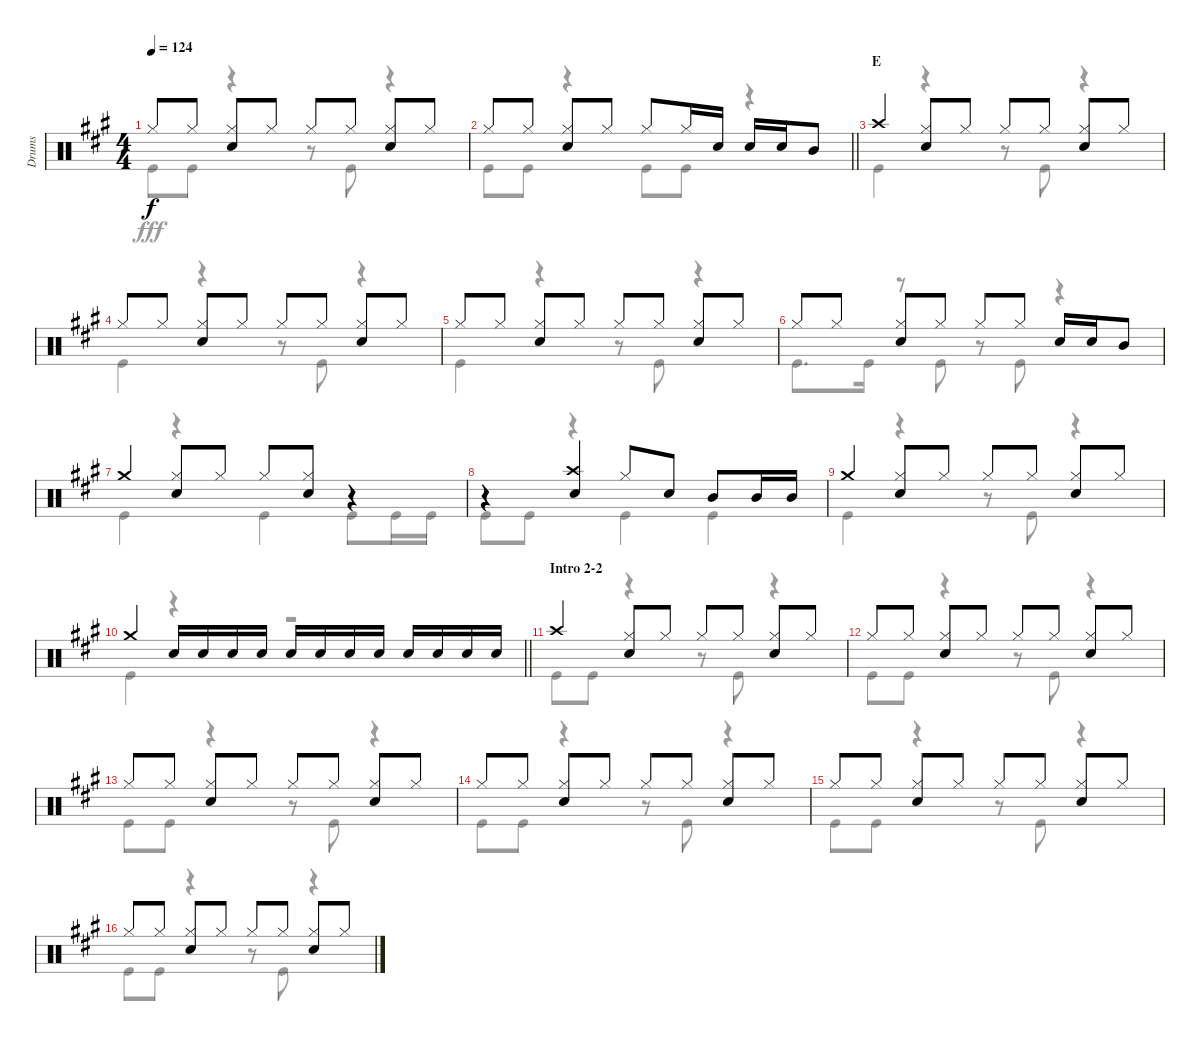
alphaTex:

\track ("Drums" "Drums") {instrument percussion}
\staff {score}
\articulation defaults
\voice
\ts (4 4)
\tempo 124
\clef neutral
\ks a "Hi-Hat (closed)".8{dy f} "Hi-Hat (closed)".8
("Hi-Hat (closed)" "Snare (hit) 2").8 "Hi-Hat (closed)".8 "Hi-Hat (closed)".8 "Hi-Hat (closed)".8 ("Hi-Hat (closed)" "Snare (hit) 2").8 "Hi-Hat (closed)".8 |
\barLineRight lightlight "Hi-Hat (closed)".8 "Hi-Hat (closed)".8
("Hi-Hat (closed)" "Snare (hit) 2").8 "Hi-Hat (closed)".8 "Hi-Hat (closed)".8 "Hi-Hat (closed)".16 "Snare (hit) 2".16 "Snare (hit) 2".16 "Snare (hit) 2".16 "Mid Tom (hit)".8 |
\section ("" "E")
"Crash high (hit)".4 ("Hi-Hat (closed)" "Snare (hit) 2").8 "Hi-Hat (closed)".8 "Hi-Hat (closed)".8 "Hi-Hat (closed)".8 ("Hi-Hat (closed)" "Snare (hit) 2").8 "Hi-Hat (closed)".8 |
"Hi-Hat (closed)".8 "Hi-Hat (closed)".8 ("Hi-Hat (closed)" "Snare (hit) 2").8 "Hi-Hat (closed)".8 "Hi-Hat (closed)".8 "Hi-Hat (closed)".8 ("Hi-Hat (closed)" "Snare (hit) 2").8 "Hi-Hat (closed)".8 |
"Hi-Hat (closed)".8 "Hi-Hat (closed)".8 ("Hi-Hat (closed)" "Snare (hit) 2").8 "Hi-Hat (closed)".8 "Hi-Hat (closed)".8 "Hi-Hat (closed)".8 ("Hi-Hat (closed)" "Snare (hit) 2").8 "Hi-Hat (closed)".8 |
"Hi-Hat (closed)".8 "Hi-Hat (closed)".8 ("Hi-Hat (closed)" "Snare (hit) 2").8 "Hi-Hat (closed)".8 "Hi-Hat (closed)".8 "Hi-Hat (closed)".8 "Snare (hit) 2".16 "Snare (hit) 2".16 "Mid Tom (hit)".8 |
"Crash medium (hit)".4 ("Hi-Hat (closed)" "Snare (hit) 2").8 "Hi-Hat (closed)".8 "Hi-Hat (closed)".8 ("Hi-Hat (closed)" "Snare (hit) 2").8 r.4 |
r.4 ("Crash high (hit)" "Snare (hit) 2").4 "Hi-Hat (closed)".8 "Snare (hit) 2".8 "Mid Tom (hit)".8 "Mid Tom (hit)".16 "Mid Tom (hit)".16 |
"Crash medium (hit)".4 ("Hi-Hat (closed)" "Snare (hit) 2").8 "Hi-Hat (closed)".8 "Hi-Hat (closed)".8 "Hi-Hat (closed)".8 ("Hi-Hat (closed)" "Snare (hit) 2").8 "Hi-Hat (closed)".8 |
\barLineRight lightlight "Crash medium (hit)".4 "Snare (hit) 2".16 "Snare (hit) 2".16 "Snare (hit) 2".16 "Snare (hit) 2".16 "Snare (hit) 2".16 "Snare (hit) 2".16 "Snare (hit) 2".16 "Snare (hit) 2".16 "Snare (hit) 2".16 "Snare (hit) 2".16 "Snare (hit) 2".16 "Snare (hit) 2".16
|
\section ("" "Intro 2-2")
"Crash high (hit)".4 ("Hi-Hat (closed)" "Snare (hit) 2").8 "Hi-Hat (closed)".8 "Hi-Hat (closed)".8 "Hi-Hat (closed)".8 ("Hi-Hat (closed)" "Snare (hit) 2").8 "Hi-Hat (closed)".8 |
"Hi-Hat (closed)".8 "Hi-Hat (closed)".8 ("Hi-Hat (closed)" "Snare (hit) 2").8 "Hi-Hat (closed)".8 "Hi-Hat (closed)".8 "Hi-Hat (closed)".8 ("Hi-Hat (closed)" "Snare (hit) 2").8 "Hi-Hat (closed)".8 |
"Hi-Hat (closed)".8 "Hi-Hat (closed)".8 ("Hi-Hat (closed)" "Snare (hit) 2").8 "Hi-Hat (closed)".8 "Hi-Hat (closed)".8 "Hi-Hat (closed)".8 ("Hi-Hat (closed)" "Snare (hit) 2").8 "Hi-Hat (closed)".8 |
"Hi-Hat (closed)".8 "Hi-Hat (closed)".8 ("Hi-Hat (closed)" "Snare (hit) 2").8 "Hi-Hat (closed)".8 "Hi-Hat (closed)".8 "Hi-Hat (closed)".8 ("Hi-Hat (closed)" "Snare (hit) 2").8 "Hi-Hat (closed)".8 |
"Hi-Hat (closed)".8 "Hi-Hat (closed)".8 ("Hi-Hat (closed)" "Snare (hit) 2").8 "Hi-Hat (closed)".8 "Hi-Hat (closed)".8 "Hi-Hat (closed)".8 ("Hi-Hat (closed)" "Snare (hit) 2").8 "Hi-Hat (closed)".8 |
"Hi-Hat (closed)".8 "Hi-Hat (closed)".8 ("Hi-Hat (closed)" "Snare (hit) 2").8 "Hi-Hat (closed)".8 "Hi-Hat (closed)".8 "Hi-Hat (closed)".8 ("Hi-Hat (closed)" "Snare (hit) 2").8 "Hi-Hat (closed)".8
\voice
\clef neutral
\ottava regular
\simile none
\ks a "Kick (hit)".8{dy fff} "Kick (hit)".8
r.4 r.8 "Kick (hit)".8 r.4 |
\barLineRight lightlight "Kick (hit)".8 "Kick (hit)".8
r.4 "Kick (hit)".8 "Kick (hit)".8 r.4 |
"Kick (hit)".4 r.4 r.8 "Kick (hit)".8 r.4 |
"Kick (hit)".4 r.4 r.8 "Kick (hit)".8 r.4 |
"Kick (hit)".4 r.4 r.8 "Kick (hit)".8 r.4 |
"Kick (hit)".8{d} "Kick (hit)".16 r.8 "Kick (hit)".8 r.8 "Kick (hit)".8 r.4 |
"Kick (hit)".4 r.4 "Kick (hit)".4 "Kick (hit)".8 "Kick (hit)".16 "Kick (hit)".16 |
"Kick (hit)".8 "Kick (hit)".8 r.4 "Kick (hit)".4 "Kick (hit)".4 |
"Kick (hit)".4 r.4 r.8 "Kick (hit)".8 r.4 |
\barLineRight lightlight "Kick (hit)".4
r.4 r.2 |
"Kick (hit)".8 "Kick (hit)".8 r.4 r.8 "Kick (hit)".8 r.4 |
"Kick (hit)".8 "Kick (hit)".8 r.4 r.8 "Kick (hit)".8 r.4 |
"Kick (hit)".8 "Kick (hit)".8 r.4 r.8 "Kick (hit)".8 r.4 |
"Kick (hit)".8 "Kick (hit)".8 r.4 r.8 "Kick (hit)".8 r.4 |
"Kick (hit)".8 "Kick (hit)".8 r.4 r.8 "Kick (hit)".8 r.4 |
"Kick (hit)".8 "Kick (hit)".8 r.4 r.8 "Kick (hit)".8 r.4
